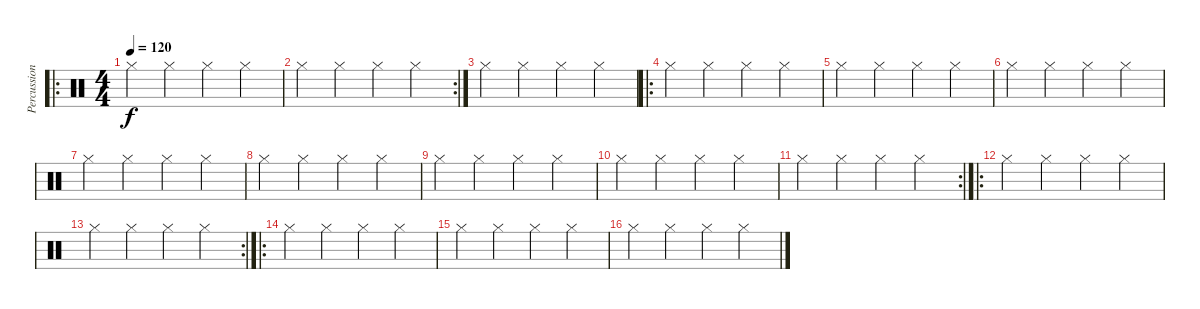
\track ("Percussioni" "Percussion") {instrument percussion}
\staff {score}
\articulation defaults
\ro
\ts (4 4)
\tempo 120
\clef neutral
\ks c "Hi-Hat (closed)".4{dy f} "Hi-Hat (closed)".4 "Hi-Hat (closed)".4 "Hi-Hat (closed)".4
|
\rc 2 "Hi-Hat (closed)".4 "Hi-Hat (closed)".4 "Hi-Hat (closed)".4 "Hi-Hat (closed)".4
|
"Hi-Hat (closed)".4 "Hi-Hat (closed)".4 "Hi-Hat (closed)".4 "Hi-Hat (closed)".4 |
\ro "Hi-Hat (closed)".4 "Hi-Hat (closed)".4 "Hi-Hat (closed)".4 "Hi-Hat (closed)".4
|
"Hi-Hat (closed)".4 "Hi-Hat (closed)".4 "Hi-Hat (closed)".4 "Hi-Hat (closed)".4 |
"Hi-Hat (closed)".4 "Hi-Hat (closed)".4 "Hi-Hat (closed)".4 "Hi-Hat (closed)".4 |
"Hi-Hat (closed)".4 "Hi-Hat (closed)".4 "Hi-Hat (closed)".4 "Hi-Hat (closed)".4 |
"Hi-Hat (closed)".4 "Hi-Hat (closed)".4 "Hi-Hat (closed)".4 "Hi-Hat (closed)".4 |
"Hi-Hat (closed)".4 "Hi-Hat (closed)".4 "Hi-Hat (closed)".4 "Hi-Hat (closed)".4 |
"Hi-Hat (closed)".4 "Hi-Hat (closed)".4 "Hi-Hat (closed)".4 "Hi-Hat (closed)".4 |
\rc 2 "Hi-Hat (closed)".4 "Hi-Hat (closed)".4 "Hi-Hat (closed)".4 "Hi-Hat (closed)".4
|
\ro "Hi-Hat (closed)".4 "Hi-Hat (closed)".4 "Hi-Hat (closed)".4 "Hi-Hat (closed)".4
|
\rc 2 "Hi-Hat (closed)".4 "Hi-Hat (closed)".4 "Hi-Hat (closed)".4 "Hi-Hat (closed)".4
|
\ro "Hi-Hat (closed)".4 "Hi-Hat (closed)".4 "Hi-Hat (closed)".4 "Hi-Hat (closed)".4
|
"Hi-Hat (closed)".4 "Hi-Hat (closed)".4 "Hi-Hat (closed)".4 "Hi-Hat (closed)".4 |
"Hi-Hat (closed)".4 "Hi-Hat (closed)".4 "Hi-Hat (closed)".4 "Hi-Hat (closed)".4
